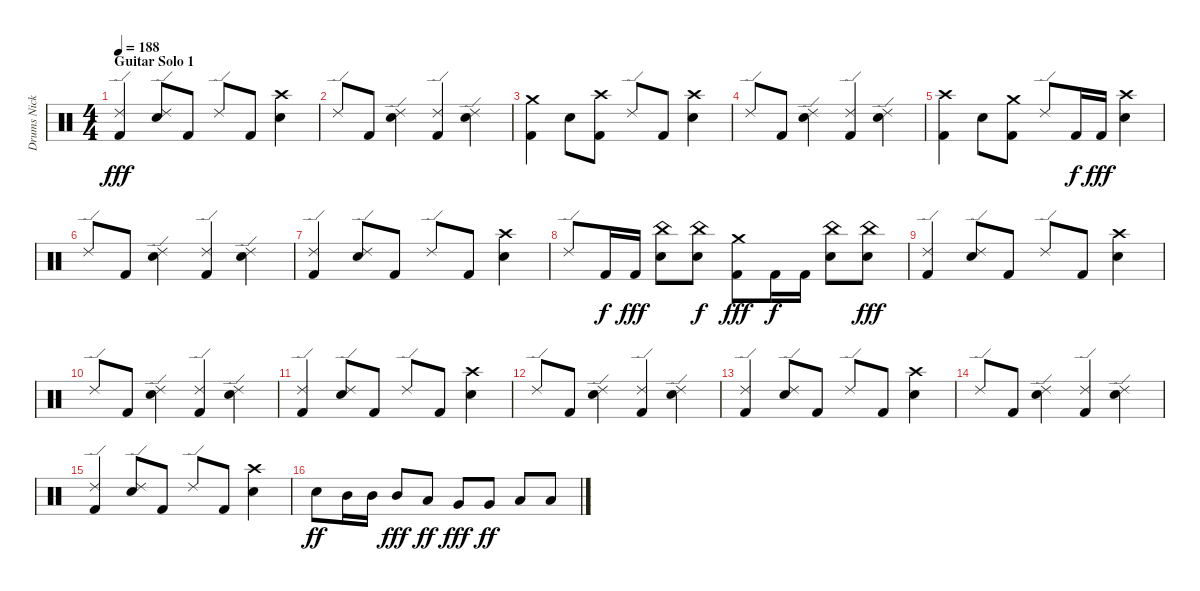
\track ("Drums Nicko McBrain" "Drums Nick") {instrument percussion}
\staff {score}
\articulation defaults
\ts (4 4)
\section ("" "Guitar Solo 1")
\tempo 188
\clef neutral
\ks c
("Ride (edge) 2" "Kick (hit) 2").4{dy fff} ("Ride (edge) 2" "Electric Snare (hit)").8 "Kick (hit) 2".8 "Ride (edge) 2".8 "Kick (hit) 2".8 ("Crash high (hit)" "Electric Snare (hit)").4 |
"Ride (edge) 2".8 "Kick (hit) 2".8 ("Ride (edge) 2" "Electric Snare (hit)").4 ("Ride (edge) 2" "Kick (hit) 2").4 ("Ride (edge) 2" "Electric Snare (hit)").4 |
("Crash medium (hit)" "Kick (hit) 2").4 "Electric Snare (hit)".8 ("Crash high (hit)" "Kick (hit) 2").8 "Ride (edge) 2".8 "Kick (hit) 2".8 ("Crash high (hit)" "Electric Snare (hit)").4 |
"Ride (edge) 2".8 "Kick (hit) 2".8 ("Ride (edge) 2" "Electric Snare (hit)").4 ("Ride (edge) 2" "Kick (hit) 2").4 ("Ride (edge) 2" "Electric Snare (hit)").4 |
("Crash high (hit)" "Kick (hit) 2").4 "Electric Snare (hit)".8 ("Crash medium (hit)" "Kick (hit) 2").8 "Ride (edge) 2".8 "Kick (hit) 2".16{dy f} "Kick (hit) 2".16{dy fff} ("Crash high (hit)" "Electric Snare (hit)").4 |
"Ride (edge) 2".8 "Kick (hit) 2".8 ("Ride (edge) 2" "Electric Snare (hit)").4 ("Ride (edge) 2" "Kick (hit) 2").4 ("Ride (edge) 2" "Electric Snare (hit)").4 |
("Ride (edge) 2" "Kick (hit) 2").4 ("Ride (edge) 2" "Electric Snare (hit)").8 "Kick (hit) 2".8 "Ride (edge) 2".8 "Kick (hit) 2".8 ("Crash high (hit)" "Electric Snare (hit)").4 |
"Ride (edge) 2".8 "Kick (hit) 2".16{dy f} "Kick (hit) 2".16{dy fff} ("China (hit)" "Electric Snare (hit)").8 ("China (hit)" "Electric Snare (hit)").8{dy f} ("Crash medium (hit)" "Kick (hit) 2").8{dy fff} "Kick (hit) 2".16{dy f} "Kick (hit) 2".16 ("China (hit)" "Electric Snare (hit)").8 ("China (hit)" "Electric Snare (hit)").8{dy fff} |
("Ride (edge) 2" "Kick (hit) 2").4 ("Ride (edge) 2" "Electric Snare (hit)").8 "Kick (hit) 2".8 "Ride (edge) 2".8 "Kick (hit) 2".8 ("Crash high (hit)" "Electric Snare (hit)").4 |
"Ride (edge) 2".8 "Kick (hit) 2".8 ("Ride (edge) 2" "Electric Snare (hit)").4 ("Ride (edge) 2" "Kick (hit) 2").4 ("Ride (edge) 2" "Electric Snare (hit)").4 |
("Ride (edge) 2" "Kick (hit) 2").4 ("Ride (edge) 2" "Electric Snare (hit)").8 "Kick (hit) 2".8 "Ride (edge) 2".8 "Kick (hit) 2".8 ("Crash high (hit)" "Electric Snare (hit)").4 |
"Ride (edge) 2".8 "Kick (hit) 2".8 ("Ride (edge) 2" "Electric Snare (hit)").4 ("Ride (edge) 2" "Kick (hit) 2").4 ("Ride (edge) 2" "Electric Snare (hit)").4 |
("Ride (edge) 2" "Kick (hit) 2").4 ("Ride (edge) 2" "Electric Snare (hit)").8 "Kick (hit) 2".8 "Ride (edge) 2".8 "Kick (hit) 2".8 ("Crash high (hit)" "Electric Snare (hit)").4 |
"Ride (edge) 2".8 "Kick (hit) 2".8 ("Ride (edge) 2" "Electric Snare (hit)").4 ("Ride (edge) 2" "Kick (hit) 2").4 ("Ride (edge) 2" "Electric Snare (hit)").4 |
("Ride (edge) 2" "Kick (hit) 2").4 ("Ride (edge) 2" "Electric Snare (hit)").8 "Kick (hit) 2".8 "Ride (edge) 2".8 "Kick (hit) 2".8 ("Crash high (hit)" "Electric Snare (hit)").4 |
"Electric Snare (hit)".8{dy ff} "Mid Tom (hit)".16 "Mid Tom (hit)".16 "Mid Tom (hit)".8{dy fff} "Low Tom (hit)".8{dy ff} "Very Low Tom (hit)".8{dy fff} "Very Low Tom (hit)".8{dy ff} "Low Floor Tom (hit)".8 "Low Floor Tom (hit)".8
